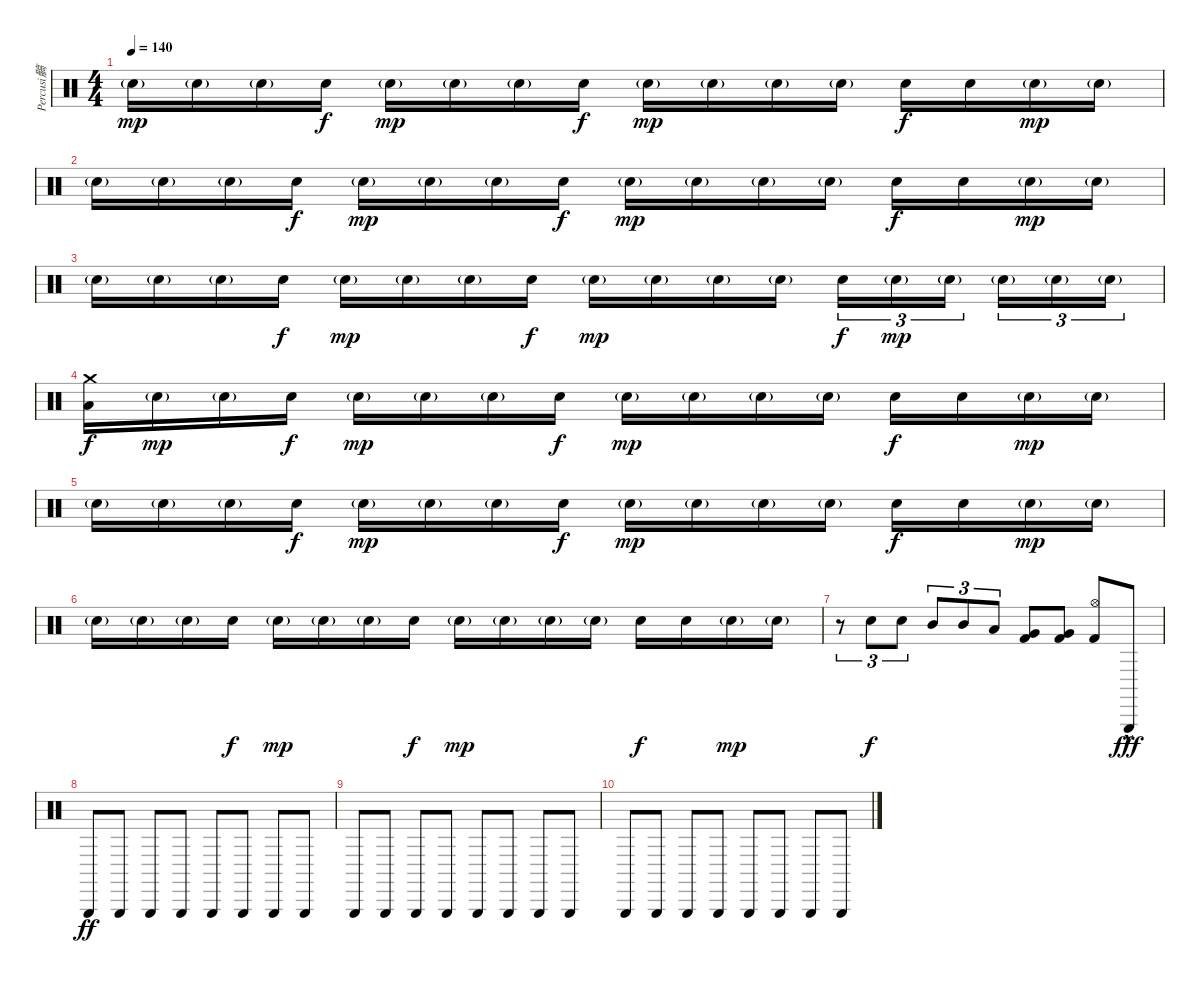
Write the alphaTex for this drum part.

\track ("Percusi髇" "Percusi髇") {instrument percussion}
\staff {score}
\articulation defaults
\ts (4 4)
\tempo 140
\clef neutral
\ks c "Snare (hit) 2"{g}.16{dy mp} "Snare (hit) 2"{g}.16 "Snare (hit) 2"{g}.16 "Snare (hit) 2".16{dy f} "Snare (hit) 2"{g}.16{dy mp} "Snare (hit) 2"{g}.16 "Snare (hit) 2"{g}.16 "Snare (hit) 2".16{dy f} "Snare (hit) 2"{g}.16{dy mp} "Snare (hit) 2"{g}.16 "Snare (hit) 2"{g}.16 "Snare (hit) 2"{g}.16 "Snare (hit) 2".16{dy f} "Snare (hit) 2".16 "Snare (hit) 2"{g}.16{dy mp} "Snare (hit) 2"{g}.16
|
"Snare (hit) 2"{g}.16 "Snare (hit) 2"{g}.16 "Snare (hit) 2"{g}.16 "Snare (hit) 2".16{dy f} "Snare (hit) 2"{g}.16{dy mp} "Snare (hit) 2"{g}.16 "Snare (hit) 2"{g}.16 "Snare (hit) 2".16{dy f} "Snare (hit) 2"{g}.16{dy mp} "Snare (hit) 2"{g}.16 "Snare (hit) 2"{g}.16 "Snare (hit) 2"{g}.16 "Snare (hit) 2".16{dy f} "Snare (hit) 2".16 "Snare (hit) 2"{g}.16{dy mp} "Snare (hit) 2"{g}.16 |
"Snare (hit) 2"{g}.16 "Snare (hit) 2"{g}.16 "Snare (hit) 2"{g}.16 "Snare (hit) 2".16{dy f} "Snare (hit) 2"{g}.16{dy mp} "Snare (hit) 2"{g}.16 "Snare (hit) 2"{g}.16 "Snare (hit) 2".16{dy f} "Snare (hit) 2"{g}.16{dy mp} "Snare (hit) 2"{g}.16 "Snare (hit) 2"{g}.16 "Snare (hit) 2"{g}.16 "Snare (hit) 2".16{tu (3 2) dy f} "Snare (hit) 2"{g}.16{tu (3 2) dy mp} "Snare (hit) 2"{g}.16{tu (3 2) beam splitsecondary} "Snare (hit) 2"{g}.16{tu (3 2)} "Snare (hit) 2"{g}.16{tu (3 2)} "Snare (hit) 2"{g}.16{tu (3 2)} |
("Crash medium (hit)" "Low Floor Tom (hit)").16{dy f} "Snare (hit) 2"{g}.16{dy mp} "Snare (hit) 2"{g}.16 "Snare (hit) 2".16{dy f} "Snare (hit) 2"{g}.16{dy mp} "Snare (hit) 2"{g}.16 "Snare (hit) 2"{g}.16 "Snare (hit) 2".16{dy f} "Snare (hit) 2"{g}.16{dy mp} "Snare (hit) 2"{g}.16 "Snare (hit) 2"{g}.16 "Snare (hit) 2"{g}.16 "Snare (hit) 2".16{dy f} "Snare (hit) 2".16 "Snare (hit) 2"{g}.16{dy mp} "Snare (hit) 2"{g}.16 |
"Snare (hit) 2"{g}.16 "Snare (hit) 2"{g}.16 "Snare (hit) 2"{g}.16 "Snare (hit) 2".16{dy f} "Snare (hit) 2"{g}.16{dy mp} "Snare (hit) 2"{g}.16 "Snare (hit) 2"{g}.16 "Snare (hit) 2".16{dy f} "Snare (hit) 2"{g}.16{dy mp} "Snare (hit) 2"{g}.16 "Snare (hit) 2"{g}.16 "Snare (hit) 2"{g}.16 "Snare (hit) 2".16{dy f} "Snare (hit) 2".16 "Snare (hit) 2"{g}.16{dy mp} "Snare (hit) 2"{g}.16 |
"Snare (hit) 2"{g}.16 "Snare (hit) 2"{g}.16 "Snare (hit) 2"{g}.16 "Snare (hit) 2".16{dy f} "Snare (hit) 2"{g}.16{dy mp} "Snare (hit) 2"{g}.16 "Snare (hit) 2"{g}.16 "Snare (hit) 2".16{dy f} "Snare (hit) 2"{g}.16{dy mp} "Snare (hit) 2"{g}.16 "Snare (hit) 2"{g}.16 "Snare (hit) 2"{g}.16 "Snare (hit) 2".16{dy f} "Snare (hit) 2".16 "Snare (hit) 2"{g}.16{dy mp} "Snare (hit) 2"{g}.16 |
r.8{tu (3 2)} "Electric Snare (hit)".8{tu (3 2) dy f} "Electric Snare (hit)".8{tu (3 2)} "Mid Tom (hit)".8{tu (3 2)} "Mid Tom (hit)".8{tu (3 2)} "Low Tom (hit)".8{tu (3 2)} ("Kick (hit) 2" "Very Low Tom (hit)").8 ("Kick (hit) 2" "Very Low Tom (hit)").8 ("Kick (hit) 2" "Hi-Hat (open)").8 "Triangle (hit)"{hac}.8{dy fff} |
"Triangle (hit)".8{dy ff volume 0} "Triangle (hit)".8 "Triangle (hit)".8 "Triangle (hit)".8 "Triangle (hit)".8 "Triangle (hit)".8 "Triangle (hit)".8 "Triangle (hit)".8 |
"Triangle (hit)".8 "Triangle (hit)".8 "Triangle (hit)".8 "Triangle (hit)".8 "Triangle (hit)".8 "Triangle (hit)".8 "Triangle (hit)".8 "Triangle (hit)".8 |
"Triangle (hit)".8 "Triangle (hit)".8 "Triangle (hit)".8 "Triangle (hit)".8 "Triangle (hit)".8 "Triangle (hit)".8 "Triangle (hit)".8 "Triangle (hit)".8
